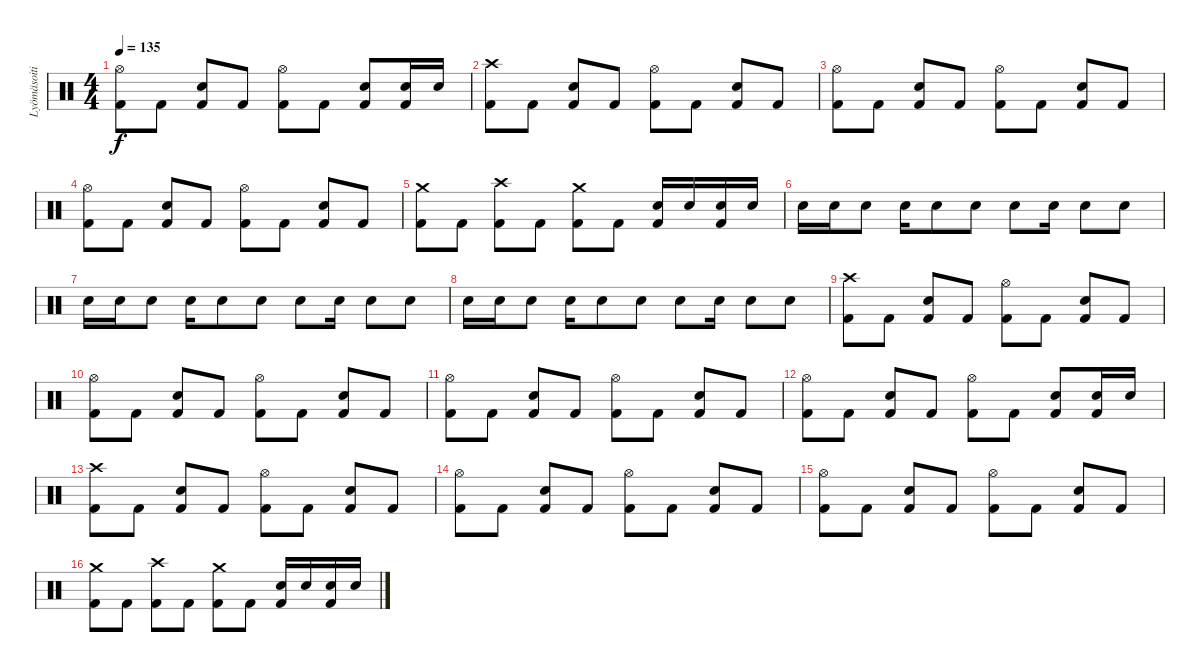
\track ("Lyömäsoitin" "Lyömäsoiti") {instrument percussion}
\staff {score}
\articulation defaults
\ts (4 4)
\tempo 135
\clef neutral
\ks c
("Hi-Hat (open)" "Kick (hit) 2").8{dy f} "Kick (hit) 2".8 ("Electric Snare (hit)" "Kick (hit) 2").8 "Kick (hit) 2".8 ("Hi-Hat (open)" "Kick (hit) 2").8 "Kick (hit) 2".8 ("Electric Snare (hit)" "Kick (hit) 2").8 ("Electric Snare (hit)" "Kick (hit) 2").16 "Electric Snare (hit)".16 |
("Crash high (hit)" "Kick (hit) 2").8 "Kick (hit) 2".8 ("Electric Snare (hit)" "Kick (hit) 2").8 "Kick (hit) 2".8 ("Hi-Hat (open)" "Kick (hit) 2").8 "Kick (hit) 2".8 ("Electric Snare (hit)" "Kick (hit) 2").8 "Kick (hit) 2".8 |
("Hi-Hat (open)" "Kick (hit) 2").8 "Kick (hit) 2".8 ("Electric Snare (hit)" "Kick (hit) 2").8 "Kick (hit) 2".8 ("Hi-Hat (open)" "Kick (hit) 2").8 "Kick (hit) 2".8 ("Electric Snare (hit)" "Kick (hit) 2").8 "Kick (hit) 2".8 |
("Hi-Hat (open)" "Kick (hit) 2").8 "Kick (hit) 2".8 ("Electric Snare (hit)" "Kick (hit) 2").8 "Kick (hit) 2".8 ("Hi-Hat (open)" "Kick (hit) 2").8 "Kick (hit) 2".8 ("Electric Snare (hit)" "Kick (hit) 2").8 "Kick (hit) 2".8 |
("Crash medium (hit)" "Kick (hit) 2").8 "Kick (hit) 2".8 ("Crash high (hit)" "Kick (hit) 2").8 "Kick (hit) 2".8 ("Crash medium (hit)" "Kick (hit) 2").8 "Kick (hit) 2".8 ("Electric Snare (hit)" "Kick (hit) 2").16 "Electric Snare (hit)".16 ("Electric Snare (hit)" "Kick (hit) 2").16 "Electric Snare (hit)".16 |
"Electric Snare (hit)".16 "Electric Snare (hit)".16 "Electric Snare (hit)".8 "Electric Snare (hit)".16 "Electric Snare (hit)".8 "Electric Snare (hit)".8 "Electric Snare (hit)".8 "Electric Snare (hit)".16 "Electric Snare (hit)".8 "Electric Snare (hit)".8 |
"Electric Snare (hit)".16 "Electric Snare (hit)".16 "Electric Snare (hit)".8 "Electric Snare (hit)".16 "Electric Snare (hit)".8 "Electric Snare (hit)".8 "Electric Snare (hit)".8 "Electric Snare (hit)".16 "Electric Snare (hit)".8 "Electric Snare (hit)".8 |
"Electric Snare (hit)".16 "Electric Snare (hit)".16 "Electric Snare (hit)".8 "Electric Snare (hit)".16 "Electric Snare (hit)".8 "Electric Snare (hit)".8 "Electric Snare (hit)".8 "Electric Snare (hit)".16 "Electric Snare (hit)".8 "Electric Snare (hit)".8 |
("Crash high (hit)" "Kick (hit) 2").8 "Kick (hit) 2".8 ("Electric Snare (hit)" "Kick (hit) 2").8 "Kick (hit) 2".8 ("Hi-Hat (open)" "Kick (hit) 2").8 "Kick (hit) 2".8 ("Electric Snare (hit)" "Kick (hit) 2").8 "Kick (hit) 2".8 |
("Hi-Hat (open)" "Kick (hit) 2").8 "Kick (hit) 2".8 ("Electric Snare (hit)" "Kick (hit) 2").8 "Kick (hit) 2".8 ("Hi-Hat (open)" "Kick (hit) 2").8 "Kick (hit) 2".8 ("Electric Snare (hit)" "Kick (hit) 2").8 "Kick (hit) 2".8 |
("Hi-Hat (open)" "Kick (hit) 2").8 "Kick (hit) 2".8 ("Electric Snare (hit)" "Kick (hit) 2").8 "Kick (hit) 2".8 ("Hi-Hat (open)" "Kick (hit) 2").8 "Kick (hit) 2".8 ("Electric Snare (hit)" "Kick (hit) 2").8 "Kick (hit) 2".8 |
("Hi-Hat (open)" "Kick (hit) 2").8 "Kick (hit) 2".8 ("Electric Snare (hit)" "Kick (hit) 2").8 "Kick (hit) 2".8 ("Hi-Hat (open)" "Kick (hit) 2").8 "Kick (hit) 2".8 ("Electric Snare (hit)" "Kick (hit) 2").8 ("Electric Snare (hit)" "Kick (hit) 2").16 "Electric Snare (hit)".16 |
("Crash high (hit)" "Kick (hit) 2").8 "Kick (hit) 2".8 ("Electric Snare (hit)" "Kick (hit) 2").8 "Kick (hit) 2".8 ("Hi-Hat (open)" "Kick (hit) 2").8 "Kick (hit) 2".8 ("Electric Snare (hit)" "Kick (hit) 2").8 "Kick (hit) 2".8 |
("Hi-Hat (open)" "Kick (hit) 2").8 "Kick (hit) 2".8 ("Electric Snare (hit)" "Kick (hit) 2").8 "Kick (hit) 2".8 ("Hi-Hat (open)" "Kick (hit) 2").8 "Kick (hit) 2".8 ("Electric Snare (hit)" "Kick (hit) 2").8 "Kick (hit) 2".8 |
("Hi-Hat (open)" "Kick (hit) 2").8 "Kick (hit) 2".8 ("Electric Snare (hit)" "Kick (hit) 2").8 "Kick (hit) 2".8 ("Hi-Hat (open)" "Kick (hit) 2").8 "Kick (hit) 2".8 ("Electric Snare (hit)" "Kick (hit) 2").8 "Kick (hit) 2".8 |
("Crash medium (hit)" "Kick (hit) 2").8 "Kick (hit) 2".8 ("Crash high (hit)" "Kick (hit) 2").8 "Kick (hit) 2".8 ("Crash medium (hit)" "Kick (hit) 2").8 "Kick (hit) 2".8 ("Electric Snare (hit)" "Kick (hit) 2").16 "Electric Snare (hit)".16 ("Electric Snare (hit)" "Kick (hit) 2").16 "Electric Snare (hit)".16
